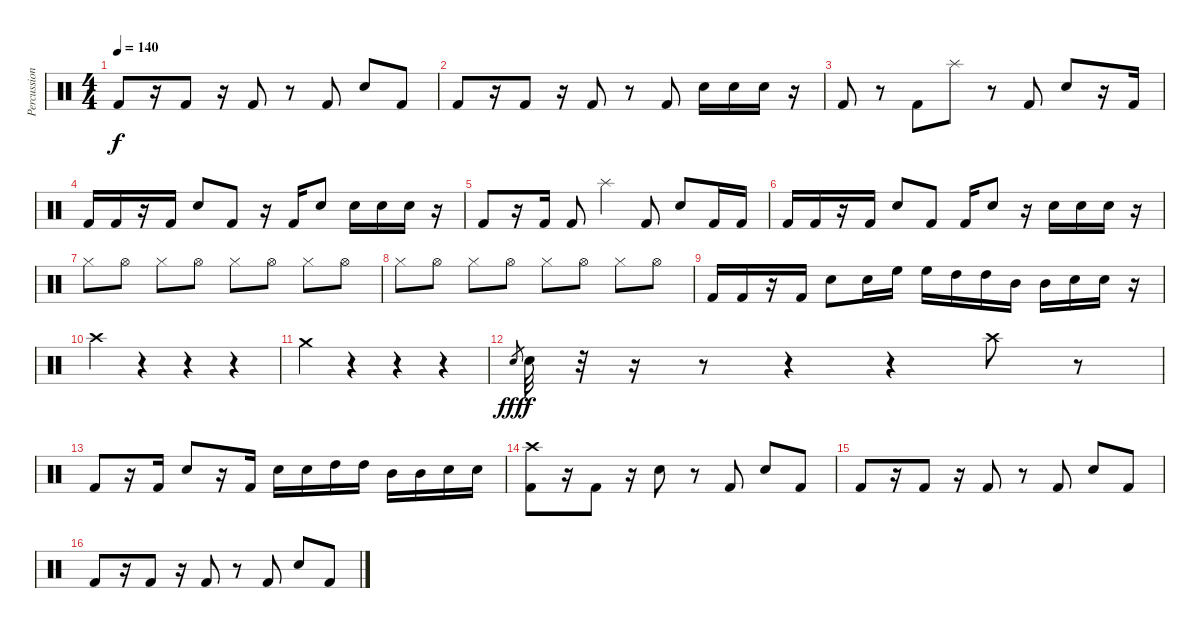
\track ("Percussion" "Percussion") {instrument percussion}
\staff {score}
\articulation defaults
\ts (4 4)
\tempo 140
\clef neutral
\ks c "Kick (hit) 2".8{dy f}
r.16 "Kick (hit) 2".8 r.16 "Kick (hit) 2".8 r.8 "Kick (hit) 2".8 "Electric Snare (hit)".8 "Kick (hit) 2".8 |
"Kick (hit) 2".8 r.16 "Kick (hit) 2".8 r.16 "Kick (hit) 2".8 r.8 "Kick (hit) 2".8 "Electric Snare (hit)".16 "Electric Snare (hit)".16 "Electric Snare (hit)".16 r.16 |
"Kick (hit) 2".8 r.8 "Kick (hit) 2".8 "Splash (hit)".8 r.8 "Kick (hit) 2".8 "Electric Snare (hit)".8 r.16 "Kick (hit) 2".16 |
"Kick (hit) 2".16 "Kick (hit) 2".16 r.16 "Kick (hit) 2".16 "Electric Snare (hit)".8 "Kick (hit) 2".8 r.16 "Kick (hit) 2".16 "Electric Snare (hit)".8 "Electric Snare (hit)".16 "Electric Snare (hit)".16 "Electric Snare (hit)".16 r.16 |
"Kick (hit) 2".8 r.16 "Kick (hit) 2".16 "Kick (hit) 2".8 "Splash (hit)".4 "Kick (hit) 2".8 "Electric Snare (hit)".8 "Kick (hit) 2".16 "Kick (hit) 2".16 |
"Kick (hit) 2".16 "Kick (hit) 2".16 r.16 "Kick (hit) 2".16 "Electric Snare (hit)".8 "Kick (hit) 2".8 "Kick (hit) 2".16 "Electric Snare (hit)".8 r.16 "Electric Snare (hit)".16 "Electric Snare (hit)".16 "Electric Snare (hit)".16 r.16 |
"Hi-Hat (closed)".8 "Hi-Hat (open)".8 "Hi-Hat (closed)".8 "Hi-Hat (open)".8 "Hi-Hat (closed)".8 "Hi-Hat (open)".8 "Hi-Hat (closed)".8 "Hi-Hat (open)".8 |
"Hi-Hat (closed)".8 "Hi-Hat (open)".8 "Hi-Hat (closed)".8 "Hi-Hat (open)".8 "Hi-Hat (closed)".8 "Hi-Hat (open)".8 "Hi-Hat (closed)".8 "Hi-Hat (open)".8 |
"Kick (hit) 2".16 "Kick (hit) 2".16 r.16 "Kick (hit) 2".16 "Electric Snare (hit)".8 "Electric Snare (hit)".16 "High Floor Tom (hit)".16 "High Floor Tom (hit)".16 "High Tom (hit)".16 "High Tom (hit)".16 "Mid Tom (hit)".16 "Mid Tom (hit)".16 "Electric Snare (hit)".16 "Electric Snare (hit)".16 r.16 |
"Crash high (hit)".4 r.4 r.4 r.4 |
"Crash medium (hit)".4 r.4 r.4 r.4 |
"Electric Snare (hit)".8{gr dy fff} "Electric Snare (hit)".32{dy f} r.32 r.16 r.8 r.4 r.4 "Crash high (hit)".8 r.8 |
"Kick (hit) 2".8 r.16 "Kick (hit) 2".16 "Electric Snare (hit)".8 r.16 "Kick (hit) 2".16 "Electric Snare (hit)".16 "Electric Snare (hit)".16 "High Tom (hit)".16 "High Tom (hit)".16 "Mid Tom (hit)".16 "Mid Tom (hit)".16 "Electric Snare (hit)".16 "Electric Snare (hit)".16 |
("Crash high (hit)" "Kick (hit) 2").8 r.16 "Kick (hit) 2".8 r.16 "Electric Snare (hit)".8 r.8 "Kick (hit) 2".8 "Electric Snare (hit)".8 "Kick (hit) 2".8 |
"Kick (hit) 2".8 r.16 "Kick (hit) 2".8 r.16 "Kick (hit) 2".8 r.8 "Kick (hit) 2".8 "Electric Snare (hit)".8 "Kick (hit) 2".8 |
"Kick (hit) 2".8 r.16 "Kick (hit) 2".8 r.16 "Kick (hit) 2".8 r.8 "Kick (hit) 2".8{volume 12} "Electric Snare (hit)".8 "Kick (hit) 2".8
